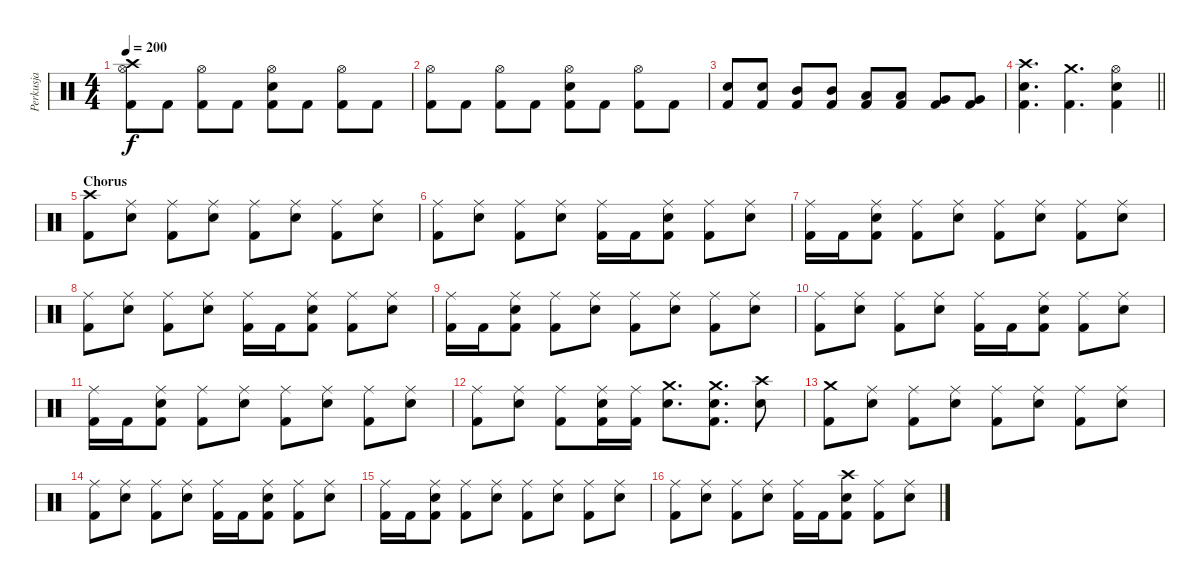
\track ("Perkusja" "Perkusja") {instrument percussion}
\staff {score}
\articulation defaults
\ts (4 4)
\tempo 200
\clef neutral
\ks c
("Crash high (hit)" "Hi-Hat (open)" "Kick (hit) 2").8{dy f} "Kick (hit) 2".8 ("Hi-Hat (open)" "Kick (hit) 2").8 "Kick (hit) 2".8 ("Hi-Hat (open)" "Electric Snare (hit)" "Kick (hit) 2").8 "Kick (hit) 2".8 ("Hi-Hat (open)" "Kick (hit) 2").8 "Kick (hit) 2".8 |
("Hi-Hat (open)" "Kick (hit) 2").8 "Kick (hit) 2".8 ("Hi-Hat (open)" "Kick (hit) 2").8 "Kick (hit) 2".8 ("Hi-Hat (open)" "Electric Snare (hit)" "Kick (hit) 2").8 "Kick (hit) 2".8 ("Hi-Hat (open)" "Kick (hit) 2").8 "Kick (hit) 2".8 |
("Electric Snare (hit)" "Kick (hit) 2").8 ("Electric Snare (hit)" "Kick (hit) 2").8 ("Mid Tom (hit)" "Kick (hit) 2").8 ("Mid Tom (hit)" "Kick (hit) 2").8 ("Low Tom (hit)" "Kick (hit) 2").8 ("Low Tom (hit)" "Kick (hit) 2").8 ("Very Low Tom (hit)" "Kick (hit) 2").8 ("Very Low Tom (hit)" "Kick (hit) 2").8 |
\barLineRight lightlight
("Crash high (hit)" "Electric Snare (hit)" "Kick (hit) 2").4{d} ("Crash medium (hit)" "Kick (hit) 2").4{d} ("Hi-Hat (open)" "Electric Snare (hit)" "Kick (hit) 2").4 |
\section ("" "Chorus")
("Crash high (hit)" "Kick (hit) 2").8 ("Ride (middle)" "Electric Snare (hit)").8 ("Ride (middle)" "Kick (hit) 2").8 ("Ride (middle)" "Electric Snare (hit)").8 ("Ride (middle)" "Kick (hit) 2").8 ("Ride (middle)" "Electric Snare (hit)").8 ("Ride (middle)" "Kick (hit) 2").8 ("Ride (middle)" "Electric Snare (hit)").8 |
("Ride (middle)" "Kick (hit) 2").8 ("Ride (middle)" "Electric Snare (hit)").8 ("Ride (middle)" "Kick (hit) 2").8 ("Ride (middle)" "Electric Snare (hit)").8 ("Ride (middle)" "Kick (hit) 2").16 "Kick (hit) 2".16 ("Ride (middle)" "Electric Snare (hit)" "Kick (hit) 2").8 ("Ride (middle)" "Kick (hit) 2").8 ("Ride (middle)" "Electric Snare (hit)").8 |
("Ride (middle)" "Kick (hit) 2").16 "Kick (hit) 2".16 ("Ride (middle)" "Electric Snare (hit)" "Kick (hit) 2").8 ("Ride (middle)" "Kick (hit) 2").8 ("Ride (middle)" "Electric Snare (hit)").8 ("Ride (middle)" "Kick (hit) 2").8 ("Ride (middle)" "Electric Snare (hit)").8 ("Ride (middle)" "Kick (hit) 2").8 ("Ride (middle)" "Electric Snare (hit)").8 |
("Ride (middle)" "Kick (hit) 2").8 ("Ride (middle)" "Electric Snare (hit)").8 ("Ride (middle)" "Kick (hit) 2").8 ("Ride (middle)" "Electric Snare (hit)").8 ("Ride (middle)" "Kick (hit) 2").16 "Kick (hit) 2".16 ("Ride (middle)" "Electric Snare (hit)" "Kick (hit) 2").8 ("Ride (middle)" "Kick (hit) 2").8 ("Ride (middle)" "Electric Snare (hit)").8 |
("Ride (middle)" "Kick (hit) 2").16 "Kick (hit) 2".16 ("Ride (middle)" "Electric Snare (hit)" "Kick (hit) 2").8 ("Ride (middle)" "Kick (hit) 2").8 ("Ride (middle)" "Electric Snare (hit)").8 ("Ride (middle)" "Kick (hit) 2").8 ("Ride (middle)" "Electric Snare (hit)").8 ("Ride (middle)" "Kick (hit) 2").8 ("Ride (middle)" "Electric Snare (hit)").8 |
("Ride (middle)" "Kick (hit) 2").8 ("Ride (middle)" "Electric Snare (hit)").8 ("Ride (middle)" "Kick (hit) 2").8 ("Ride (middle)" "Electric Snare (hit)").8 ("Ride (middle)" "Kick (hit) 2").16 "Kick (hit) 2".16 ("Ride (middle)" "Electric Snare (hit)" "Kick (hit) 2").8 ("Ride (middle)" "Kick (hit) 2").8 ("Ride (middle)" "Electric Snare (hit)").8 |
("Ride (middle)" "Kick (hit) 2").16 "Kick (hit) 2".16 ("Ride (middle)" "Electric Snare (hit)" "Kick (hit) 2").8 ("Ride (middle)" "Kick (hit) 2").8 ("Ride (middle)" "Electric Snare (hit)").8 ("Ride (middle)" "Kick (hit) 2").8 ("Ride (middle)" "Electric Snare (hit)").8 ("Ride (middle)" "Kick (hit) 2").8 ("Ride (middle)" "Electric Snare (hit)").8 |
("Ride (middle)" "Kick (hit) 2").8 ("Ride (middle)" "Electric Snare (hit)").8 ("Ride (middle)" "Kick (hit) 2").8 ("Ride (middle)" "Electric Snare (hit)" "Kick (hit) 2").16 ("Ride (middle)" "Kick (hit) 2").16 ("Crash medium (hit)" "Electric Snare (hit)").8{d} ("Crash medium (hit)" "Electric Snare (hit)" "Kick (hit) 2").8{d} ("Crash high (hit)" "Electric Snare (hit)").8 |
("Crash medium (hit)" "Kick (hit) 2").8 ("Ride (middle)" "Electric Snare (hit)").8 ("Ride (middle)" "Kick (hit) 2").8 ("Ride (middle)" "Electric Snare (hit)").8 ("Ride (middle)" "Kick (hit) 2").8 ("Ride (middle)" "Electric Snare (hit)").8 ("Ride (middle)" "Kick (hit) 2").8 ("Ride (middle)" "Electric Snare (hit)").8 |
("Ride (middle)" "Kick (hit) 2").8 ("Ride (middle)" "Electric Snare (hit)").8 ("Ride (middle)" "Kick (hit) 2").8 ("Ride (middle)" "Electric Snare (hit)").8 ("Ride (middle)" "Kick (hit) 2").16 "Kick (hit) 2".16 ("Ride (middle)" "Electric Snare (hit)" "Kick (hit) 2").8 ("Ride (middle)" "Kick (hit) 2").8 ("Ride (middle)" "Electric Snare (hit)").8 |
("Ride (middle)" "Kick (hit) 2").16 "Kick (hit) 2".16 ("Ride (middle)" "Electric Snare (hit)" "Kick (hit) 2").8 ("Ride (middle)" "Kick (hit) 2").8 ("Ride (middle)" "Electric Snare (hit)").8 ("Ride (middle)" "Kick (hit) 2").8 ("Ride (middle)" "Electric Snare (hit)").8 ("Ride (middle)" "Kick (hit) 2").8 ("Ride (middle)" "Electric Snare (hit)").8 |
("Ride (middle)" "Kick (hit) 2").8 ("Ride (middle)" "Electric Snare (hit)").8 ("Ride (middle)" "Kick (hit) 2").8 ("Ride (middle)" "Electric Snare (hit)").8 ("Ride (middle)" "Kick (hit) 2").16 "Kick (hit) 2".16 ("Crash high (hit)" "Electric Snare (hit)" "Kick (hit) 2").8 ("Ride (middle)" "Kick (hit) 2").8 ("Ride (middle)" "Electric Snare (hit)").8
